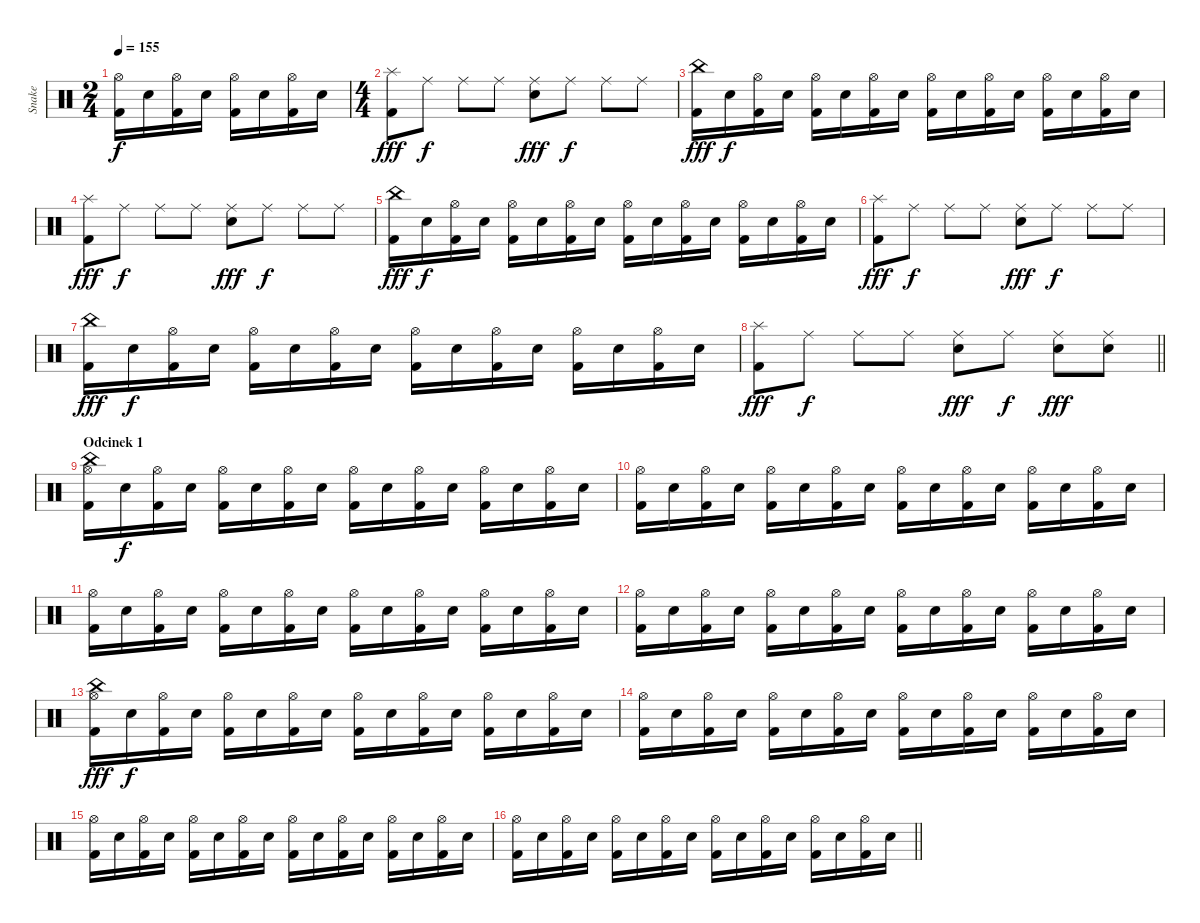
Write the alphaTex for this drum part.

\track ("Snake" "Snake") {instrument percussion}
\staff {score}
\articulation defaults
\ts (2 4)
\tempo 155
\clef neutral
\ks c
("Hi-Hat (open)" "Kick (hit) 2").16{dy f} "Snare (hit) 2".16 ("Hi-Hat (open)" "Kick (hit) 2").16 "Snare (hit) 2".16 ("Hi-Hat (open)" "Kick (hit) 2").16 "Snare (hit) 2".16 ("Hi-Hat (open)" "Kick (hit) 2").16 "Snare (hit) 2".16 |
\ts (4 4)
("Splash (hit)" "Kick (hit) 2").8{dy fff} "Ride (middle)".8{dy f} "Ride (middle)".8 "Ride (middle)".8 ("Ride (middle)" "Electric Snare (hit)").8{dy fff} "Ride (middle)".8{dy f} "Ride (middle)".8 "Ride (middle)".8 |
("China (hit)" "Kick (hit) 2").16{dy fff} "Snare (hit) 2".16{dy f} ("Hi-Hat (open)" "Kick (hit) 2").16 "Snare (hit) 2".16 ("Hi-Hat (open)" "Kick (hit) 2").16 "Snare (hit) 2".16 ("Hi-Hat (open)" "Kick (hit) 2").16 "Snare (hit) 2".16 ("Hi-Hat (open)" "Kick (hit) 2").16 "Snare (hit) 2".16 ("Hi-Hat (open)" "Kick (hit) 2").16 "Snare (hit) 2".16 ("Hi-Hat (open)" "Kick (hit) 2").16 "Snare (hit) 2".16 ("Hi-Hat (open)" "Kick (hit) 2").16 "Snare (hit) 2".16 |
("Splash (hit)" "Kick (hit) 2").8{dy fff} "Ride (middle)".8{dy f} "Ride (middle)".8 "Ride (middle)".8 ("Ride (middle)" "Electric Snare (hit)").8{dy fff} "Ride (middle)".8{dy f} "Ride (middle)".8 "Ride (middle)".8 |
("China (hit)" "Kick (hit) 2").16{dy fff} "Snare (hit) 2".16{dy f} ("Hi-Hat (open)" "Kick (hit) 2").16 "Snare (hit) 2".16 ("Hi-Hat (open)" "Kick (hit) 2").16 "Snare (hit) 2".16 ("Hi-Hat (open)" "Kick (hit) 2").16 "Snare (hit) 2".16 ("Hi-Hat (open)" "Kick (hit) 2").16 "Snare (hit) 2".16 ("Hi-Hat (open)" "Kick (hit) 2").16 "Snare (hit) 2".16 ("Hi-Hat (open)" "Kick (hit) 2").16 "Snare (hit) 2".16 ("Hi-Hat (open)" "Kick (hit) 2").16 "Snare (hit) 2".16 |
("Splash (hit)" "Kick (hit) 2").8{dy fff} "Ride (middle)".8{dy f} "Ride (middle)".8 "Ride (middle)".8 ("Ride (middle)" "Electric Snare (hit)").8{dy fff} "Ride (middle)".8{dy f} "Ride (middle)".8 "Ride (middle)".8 |
("China (hit)" "Kick (hit) 2").16{dy fff} "Snare (hit) 2".16{dy f} ("Hi-Hat (open)" "Kick (hit) 2").16 "Snare (hit) 2".16 ("Hi-Hat (open)" "Kick (hit) 2").16 "Snare (hit) 2".16 ("Hi-Hat (open)" "Kick (hit) 2").16 "Snare (hit) 2".16 ("Hi-Hat (open)" "Kick (hit) 2").16 "Snare (hit) 2".16 ("Hi-Hat (open)" "Kick (hit) 2").16 "Snare (hit) 2".16 ("Hi-Hat (open)" "Kick (hit) 2").16 "Snare (hit) 2".16 ("Hi-Hat (open)" "Kick (hit) 2").16 "Snare (hit) 2".16 |
\barLineRight lightlight
("Splash (hit)" "Kick (hit) 2").8{dy fff} "Ride (middle)".8{dy f} "Ride (middle)".8 "Ride (middle)".8 ("Ride (middle)" "Electric Snare (hit)").8{dy fff} "Ride (middle)".8{dy f} ("Ride (middle)" "Electric Snare (hit)").8{dy fff} ("Ride (middle)" "Electric Snare (hit)").8 |
\section ("" "Odcinek 1")
("China (hit)" "Hi-Hat (open)" "Kick (hit) 2").16 "Snare (hit) 2".16{dy f} ("Hi-Hat (open)" "Kick (hit) 2").16 "Snare (hit) 2".16 ("Hi-Hat (open)" "Kick (hit) 2").16 "Snare (hit) 2".16 ("Hi-Hat (open)" "Kick (hit) 2").16 "Snare (hit) 2".16 ("Hi-Hat (open)" "Kick (hit) 2").16 "Snare (hit) 2".16 ("Hi-Hat (open)" "Kick (hit) 2").16 "Snare (hit) 2".16 ("Hi-Hat (open)" "Kick (hit) 2").16 "Snare (hit) 2".16 ("Hi-Hat (open)" "Kick (hit) 2").16 "Snare (hit) 2".16 |
("Hi-Hat (open)" "Kick (hit) 2").16 "Snare (hit) 2".16 ("Hi-Hat (open)" "Kick (hit) 2").16 "Snare (hit) 2".16 ("Hi-Hat (open)" "Kick (hit) 2").16 "Snare (hit) 2".16 ("Hi-Hat (open)" "Kick (hit) 2").16 "Snare (hit) 2".16 ("Hi-Hat (open)" "Kick (hit) 2").16 "Snare (hit) 2".16 ("Hi-Hat (open)" "Kick (hit) 2").16 "Snare (hit) 2".16 ("Hi-Hat (open)" "Kick (hit) 2").16 "Snare (hit) 2".16 ("Hi-Hat (open)" "Kick (hit) 2").16 "Snare (hit) 2".16 |
("Hi-Hat (open)" "Kick (hit) 2").16 "Snare (hit) 2".16 ("Hi-Hat (open)" "Kick (hit) 2").16 "Snare (hit) 2".16 ("Hi-Hat (open)" "Kick (hit) 2").16 "Snare (hit) 2".16 ("Hi-Hat (open)" "Kick (hit) 2").16 "Snare (hit) 2".16 ("Hi-Hat (open)" "Kick (hit) 2").16 "Snare (hit) 2".16 ("Hi-Hat (open)" "Kick (hit) 2").16 "Snare (hit) 2".16 ("Hi-Hat (open)" "Kick (hit) 2").16 "Snare (hit) 2".16 ("Hi-Hat (open)" "Kick (hit) 2").16 "Snare (hit) 2".16 |
("Hi-Hat (open)" "Kick (hit) 2").16 "Snare (hit) 2".16 ("Hi-Hat (open)" "Kick (hit) 2").16 "Snare (hit) 2".16 ("Hi-Hat (open)" "Kick (hit) 2").16 "Snare (hit) 2".16 ("Hi-Hat (open)" "Kick (hit) 2").16 "Snare (hit) 2".16 ("Hi-Hat (open)" "Kick (hit) 2").16 "Snare (hit) 2".16 ("Hi-Hat (open)" "Kick (hit) 2").16 "Snare (hit) 2".16 ("Hi-Hat (open)" "Kick (hit) 2").16 "Snare (hit) 2".16 ("Hi-Hat (open)" "Kick (hit) 2").16 "Snare (hit) 2".16 |
("China (hit)" "Hi-Hat (open)" "Kick (hit) 2").16{dy fff} "Snare (hit) 2".16{dy f} ("Hi-Hat (open)" "Kick (hit) 2").16 "Snare (hit) 2".16 ("Hi-Hat (open)" "Kick (hit) 2").16 "Snare (hit) 2".16 ("Hi-Hat (open)" "Kick (hit) 2").16 "Snare (hit) 2".16 ("Hi-Hat (open)" "Kick (hit) 2").16 "Snare (hit) 2".16 ("Hi-Hat (open)" "Kick (hit) 2").16 "Snare (hit) 2".16 ("Hi-Hat (open)" "Kick (hit) 2").16 "Snare (hit) 2".16 ("Hi-Hat (open)" "Kick (hit) 2").16 "Snare (hit) 2".16 |
("Hi-Hat (open)" "Kick (hit) 2").16 "Snare (hit) 2".16 ("Hi-Hat (open)" "Kick (hit) 2").16 "Snare (hit) 2".16 ("Hi-Hat (open)" "Kick (hit) 2").16 "Snare (hit) 2".16 ("Hi-Hat (open)" "Kick (hit) 2").16 "Snare (hit) 2".16 ("Hi-Hat (open)" "Kick (hit) 2").16 "Snare (hit) 2".16 ("Hi-Hat (open)" "Kick (hit) 2").16 "Snare (hit) 2".16 ("Hi-Hat (open)" "Kick (hit) 2").16 "Snare (hit) 2".16 ("Hi-Hat (open)" "Kick (hit) 2").16 "Snare (hit) 2".16 |
("Hi-Hat (open)" "Kick (hit) 2").16 "Snare (hit) 2".16 ("Hi-Hat (open)" "Kick (hit) 2").16 "Snare (hit) 2".16 ("Hi-Hat (open)" "Kick (hit) 2").16 "Snare (hit) 2".16 ("Hi-Hat (open)" "Kick (hit) 2").16 "Snare (hit) 2".16 ("Hi-Hat (open)" "Kick (hit) 2").16 "Snare (hit) 2".16 ("Hi-Hat (open)" "Kick (hit) 2").16 "Snare (hit) 2".16 ("Hi-Hat (open)" "Kick (hit) 2").16 "Snare (hit) 2".16 ("Hi-Hat (open)" "Kick (hit) 2").16 "Snare (hit) 2".16 |
\barLineRight lightlight
("Hi-Hat (open)" "Kick (hit) 2").16 "Snare (hit) 2".16 ("Hi-Hat (open)" "Kick (hit) 2").16 "Snare (hit) 2".16 ("Hi-Hat (open)" "Kick (hit) 2").16 "Snare (hit) 2".16 ("Hi-Hat (open)" "Kick (hit) 2").16 "Snare (hit) 2".16 ("Hi-Hat (open)" "Kick (hit) 2").16 "Snare (hit) 2".16 ("Hi-Hat (open)" "Kick (hit) 2").16 "Snare (hit) 2".16 ("Hi-Hat (open)" "Kick (hit) 2").16 "Snare (hit) 2".16 ("Hi-Hat (open)" "Kick (hit) 2").16 "Snare (hit) 2".16
